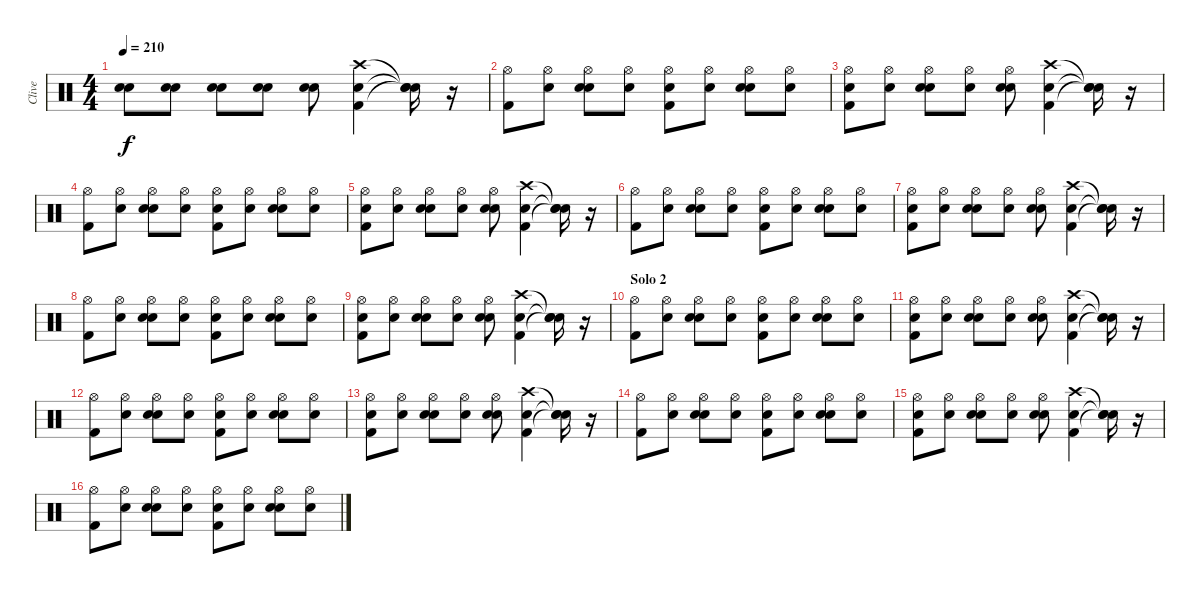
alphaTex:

\track ("Clive" "Clive") {instrument percussion}
\staff {score}
\articulation defaults
\ts (4 4)
\tempo 210
\clef neutral
\ks c
("Snare (hit)" "Snare (hit) 2").8{dy f} ("Snare (hit)" "Snare (hit) 2").8 ("Snare (hit)" "Snare (hit) 2").8 ("Snare (hit)" "Snare (hit) 2").8 ("Snare (hit)" "Snare (hit) 2").8 ("Snare (hit)" "Kick (hit) 2" "Crash high (hit)").4 ("Snare (hit)"{t} "Snare (hit)"{t} "Snare (hit)"{t}).16 r.16 |
("Kick (hit) 2" "Hi-Hat (open)").8 ("Snare (hit)" "Hi-Hat (open)").8 ("Snare (hit)" "Snare (hit) 2" "Hi-Hat (open)").8 ("Snare (hit)" "Hi-Hat (open)").8 ("Snare (hit)" "Kick (hit) 2" "Hi-Hat (open)").8 ("Snare (hit)" "Hi-Hat (open)").8 ("Snare (hit)" "Snare (hit) 2" "Hi-Hat (open)").8 ("Snare (hit)" "Hi-Hat (open)").8 |
("Snare (hit)" "Kick (hit) 2" "Hi-Hat (open)").8 ("Snare (hit)" "Hi-Hat (open)").8 ("Snare (hit)" "Snare (hit) 2" "Hi-Hat (open)").8 ("Snare (hit)" "Hi-Hat (open)").8 ("Snare (hit)" "Snare (hit) 2" "Hi-Hat (open)").8 ("Snare (hit)" "Kick (hit) 2" "Crash high (hit)").4 ("Snare (hit)"{t} "Snare (hit)"{t} "Snare (hit)"{t}).16 r.16 |
("Kick (hit) 2" "Hi-Hat (open)").8 ("Snare (hit)" "Hi-Hat (open)").8 ("Snare (hit)" "Snare (hit) 2" "Hi-Hat (open)").8 ("Snare (hit)" "Hi-Hat (open)").8 ("Snare (hit)" "Kick (hit) 2" "Hi-Hat (open)").8 ("Snare (hit)" "Hi-Hat (open)").8 ("Snare (hit)" "Snare (hit) 2" "Hi-Hat (open)").8 ("Snare (hit)" "Hi-Hat (open)").8 |
("Snare (hit)" "Kick (hit) 2" "Hi-Hat (open)").8 ("Snare (hit)" "Hi-Hat (open)").8 ("Snare (hit)" "Snare (hit) 2" "Hi-Hat (open)").8 ("Snare (hit)" "Hi-Hat (open)").8 ("Snare (hit)" "Snare (hit) 2" "Hi-Hat (open)").8 ("Snare (hit)" "Kick (hit) 2" "Crash high (hit)").4 ("Snare (hit)"{t} "Snare (hit)"{t} "Snare (hit)"{t}).16 r.16 |
("Kick (hit) 2" "Hi-Hat (open)").8 ("Snare (hit)" "Hi-Hat (open)").8 ("Snare (hit)" "Snare (hit) 2" "Hi-Hat (open)").8 ("Snare (hit)" "Hi-Hat (open)").8 ("Snare (hit)" "Kick (hit) 2" "Hi-Hat (open)").8 ("Snare (hit)" "Hi-Hat (open)").8 ("Snare (hit)" "Snare (hit) 2" "Hi-Hat (open)").8 ("Snare (hit)" "Hi-Hat (open)").8 |
("Snare (hit)" "Kick (hit) 2" "Hi-Hat (open)").8 ("Snare (hit)" "Hi-Hat (open)").8 ("Snare (hit)" "Snare (hit) 2" "Hi-Hat (open)").8 ("Snare (hit)" "Hi-Hat (open)").8 ("Snare (hit)" "Snare (hit) 2" "Hi-Hat (open)").8 ("Snare (hit)" "Kick (hit) 2" "Crash high (hit)").4 ("Snare (hit)"{t} "Snare (hit)"{t} "Snare (hit)"{t}).16 r.16 |
("Kick (hit) 2" "Hi-Hat (open)").8 ("Snare (hit)" "Hi-Hat (open)").8 ("Snare (hit)" "Snare (hit) 2" "Hi-Hat (open)").8 ("Snare (hit)" "Hi-Hat (open)").8 ("Snare (hit)" "Kick (hit) 2" "Hi-Hat (open)").8 ("Snare (hit)" "Hi-Hat (open)").8 ("Snare (hit)" "Snare (hit) 2" "Hi-Hat (open)").8 ("Snare (hit)" "Hi-Hat (open)").8 |
("Snare (hit)" "Kick (hit) 2" "Hi-Hat (open)").8 ("Snare (hit)" "Hi-Hat (open)").8 ("Snare (hit)" "Snare (hit) 2" "Hi-Hat (open)").8 ("Snare (hit)" "Hi-Hat (open)").8 ("Snare (hit)" "Snare (hit) 2" "Hi-Hat (open)").8 ("Snare (hit)" "Kick (hit) 2" "Crash high (hit)").4 ("Snare (hit)"{t} "Snare (hit)"{t} "Snare (hit)"{t}).16 r.16 |
\section ("" "Solo 2")
("Kick (hit) 2" "Hi-Hat (open)").8 ("Snare (hit)" "Hi-Hat (open)").8 ("Snare (hit)" "Snare (hit) 2" "Hi-Hat (open)").8 ("Snare (hit)" "Hi-Hat (open)").8 ("Snare (hit)" "Kick (hit) 2" "Hi-Hat (open)").8 ("Snare (hit)" "Hi-Hat (open)").8 ("Snare (hit)" "Snare (hit) 2" "Hi-Hat (open)").8 ("Snare (hit)" "Hi-Hat (open)").8 |
("Snare (hit)" "Kick (hit) 2" "Hi-Hat (open)").8 ("Snare (hit)" "Hi-Hat (open)").8 ("Snare (hit)" "Snare (hit) 2" "Hi-Hat (open)").8 ("Snare (hit)" "Hi-Hat (open)").8 ("Snare (hit)" "Snare (hit) 2" "Hi-Hat (open)").8 ("Snare (hit)" "Kick (hit) 2" "Crash high (hit)").4 ("Snare (hit)"{t} "Snare (hit)"{t} "Snare (hit)"{t}).16 r.16 |
("Kick (hit) 2" "Hi-Hat (open)").8 ("Snare (hit)" "Hi-Hat (open)").8 ("Snare (hit)" "Snare (hit) 2" "Hi-Hat (open)").8 ("Snare (hit)" "Hi-Hat (open)").8 ("Snare (hit)" "Kick (hit) 2" "Hi-Hat (open)").8 ("Snare (hit)" "Hi-Hat (open)").8 ("Snare (hit)" "Snare (hit) 2" "Hi-Hat (open)").8 ("Snare (hit)" "Hi-Hat (open)").8 |
("Snare (hit)" "Kick (hit) 2" "Hi-Hat (open)").8 ("Snare (hit)" "Hi-Hat (open)").8 ("Snare (hit)" "Snare (hit) 2" "Hi-Hat (open)").8 ("Snare (hit)" "Hi-Hat (open)").8 ("Snare (hit)" "Snare (hit) 2" "Hi-Hat (open)").8 ("Snare (hit)" "Kick (hit) 2" "Crash high (hit)").4 ("Snare (hit)"{t} "Snare (hit)"{t} "Snare (hit)"{t}).16 r.16 |
("Kick (hit) 2" "Hi-Hat (open)").8 ("Snare (hit)" "Hi-Hat (open)").8 ("Snare (hit)" "Snare (hit) 2" "Hi-Hat (open)").8 ("Snare (hit)" "Hi-Hat (open)").8 ("Snare (hit)" "Kick (hit) 2" "Hi-Hat (open)").8 ("Snare (hit)" "Hi-Hat (open)").8 ("Snare (hit)" "Snare (hit) 2" "Hi-Hat (open)").8 ("Snare (hit)" "Hi-Hat (open)").8 |
("Snare (hit)" "Kick (hit) 2" "Hi-Hat (open)").8 ("Snare (hit)" "Hi-Hat (open)").8 ("Snare (hit)" "Snare (hit) 2" "Hi-Hat (open)").8 ("Snare (hit)" "Hi-Hat (open)").8 ("Snare (hit)" "Snare (hit) 2" "Hi-Hat (open)").8 ("Snare (hit)" "Kick (hit) 2" "Crash high (hit)").4 ("Snare (hit)"{t} "Snare (hit)"{t} "Snare (hit)"{t}).16 r.16 |
("Kick (hit) 2" "Hi-Hat (open)").8 ("Snare (hit)" "Hi-Hat (open)").8 ("Snare (hit)" "Snare (hit) 2" "Hi-Hat (open)").8 ("Snare (hit)" "Hi-Hat (open)").8 ("Snare (hit)" "Kick (hit) 2" "Hi-Hat (open)").8 ("Snare (hit)" "Hi-Hat (open)").8 ("Snare (hit)" "Snare (hit) 2" "Hi-Hat (open)").8 ("Snare (hit)" "Hi-Hat (open)").8
